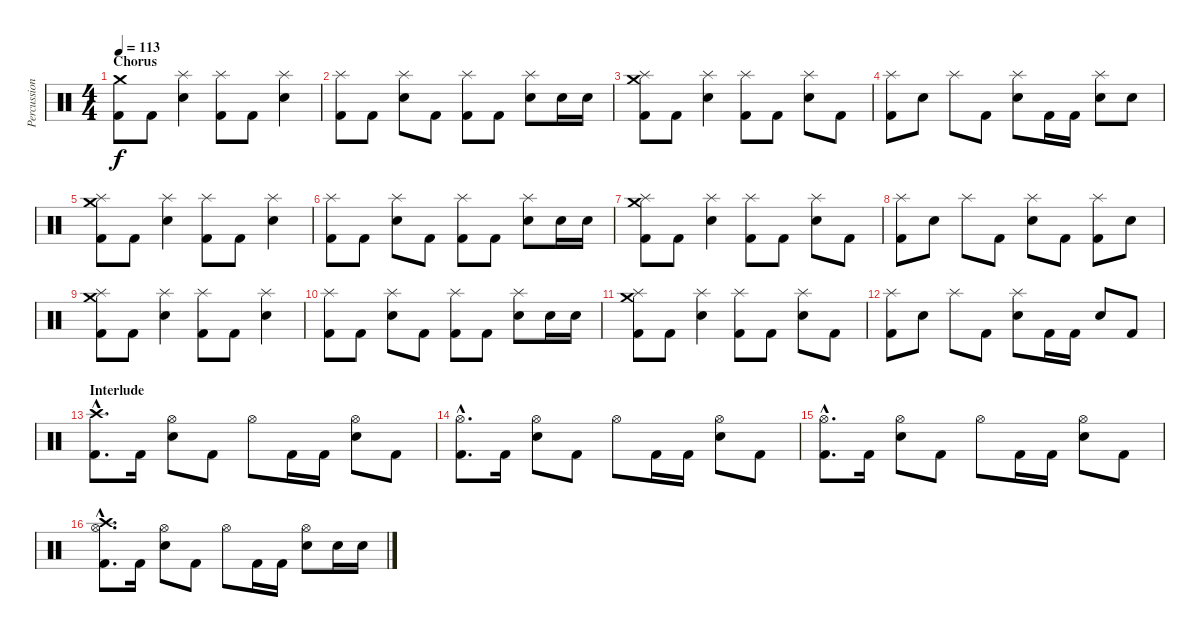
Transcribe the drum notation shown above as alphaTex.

\track ("Percussion" "Percussion") {instrument percussion}
\staff {score}
\articulation defaults
\ts (4 4)
\section ("" "Chorus")
\tempo 113
\clef neutral
\ks c
("Kick (hit) 2" "Crash medium (hit)").8{dy f} "Kick (hit) 2".8 ("Snare (hit) 2" "Splash (hit)").4 ("Kick (hit) 2" "Splash (hit)").8 "Kick (hit) 2".8 ("Snare (hit) 2" "Splash (hit)").4 |
("Kick (hit) 2" "Splash (hit)").8 "Kick (hit) 2".8 ("Snare (hit) 2" "Splash (hit)").8 "Kick (hit) 2".8 ("Kick (hit) 2" "Splash (hit)").8 "Kick (hit) 2".8 ("Snare (hit) 2" "Splash (hit)").8 "Snare (hit) 2".16 "Snare (hit) 2".16 |
("Kick (hit) 2" "Splash (hit)" "Crash medium (hit)").8 "Kick (hit) 2".8 ("Snare (hit) 2" "Splash (hit)").4 ("Kick (hit) 2" "Splash (hit)").8 "Kick (hit) 2".8 ("Snare (hit) 2" "Splash (hit)").8 "Kick (hit) 2".8 |
("Kick (hit) 2" "Splash (hit)").8 "Snare (hit) 2".8 "Splash (hit)".8 "Kick (hit) 2".8 ("Snare (hit) 2" "Splash (hit)").8 "Kick (hit) 2".16 "Kick (hit) 2".16 ("Snare (hit) 2" "Splash (hit)").8 "Snare (hit) 2".8 |
("Kick (hit) 2" "Splash (hit)" "Crash medium (hit)").8 "Kick (hit) 2".8 ("Snare (hit) 2" "Splash (hit)").4 ("Kick (hit) 2" "Splash (hit)").8 "Kick (hit) 2".8 ("Snare (hit) 2" "Splash (hit)").4 |
("Kick (hit) 2" "Splash (hit)").8 "Kick (hit) 2".8 ("Snare (hit) 2" "Splash (hit)").8 "Kick (hit) 2".8 ("Kick (hit) 2" "Splash (hit)").8 "Kick (hit) 2".8 ("Snare (hit) 2" "Splash (hit)").8 "Snare (hit) 2".16 "Snare (hit) 2".16 |
("Kick (hit) 2" "Splash (hit)" "Crash medium (hit)").8 "Kick (hit) 2".8 ("Snare (hit) 2" "Splash (hit)").4 ("Kick (hit) 2" "Splash (hit)").8 "Kick (hit) 2".8 ("Snare (hit) 2" "Splash (hit)").8 "Kick (hit) 2".8 |
("Kick (hit) 2" "Splash (hit)").8 "Snare (hit) 2".8 "Splash (hit)".8 "Kick (hit) 2".8 ("Snare (hit) 2" "Splash (hit)").8 "Kick (hit) 2".8 ("Kick (hit) 2" "Splash (hit)").8 "Snare (hit) 2".8 |
("Kick (hit) 2" "Splash (hit)" "Crash medium (hit)").8 "Kick (hit) 2".8 ("Snare (hit) 2" "Splash (hit)").4 ("Kick (hit) 2" "Splash (hit)").8 "Kick (hit) 2".8 ("Snare (hit) 2" "Splash (hit)").4 |
("Kick (hit) 2" "Splash (hit)").8 "Kick (hit) 2".8 ("Snare (hit) 2" "Splash (hit)").8 "Kick (hit) 2".8 ("Kick (hit) 2" "Splash (hit)").8 "Kick (hit) 2".8 ("Snare (hit) 2" "Splash (hit)").8 "Snare (hit) 2".16 "Snare (hit) 2".16 |
("Kick (hit) 2" "Splash (hit)" "Crash medium (hit)").8 "Kick (hit) 2".8 ("Snare (hit) 2" "Splash (hit)").4 ("Kick (hit) 2" "Splash (hit)").8 "Kick (hit) 2".8 ("Snare (hit) 2" "Splash (hit)").8 "Kick (hit) 2".8 |
("Kick (hit) 2" "Splash (hit)").8 "Electric Snare (hit)".8 "Splash (hit)".8 "Kick (hit) 2".8 ("Electric Snare (hit)" "Splash (hit)").8 "Kick (hit) 2".16 "Kick (hit) 2".16 "Electric Snare (hit)".8 "Kick (hit) 2".8 |
\section ("" "Interlude")
("Kick (hit) 2"{hac} "Crash high (hit)"{hac}).8{d} "Kick (hit) 2".16 ("Electric Snare (hit)" "Hi-Hat (open)").8 "Kick (hit) 2".8 "Hi-Hat (open)".8 "Kick (hit) 2".16 "Kick (hit) 2".16 ("Electric Snare (hit)" "Hi-Hat (open)").8 "Kick (hit) 2".8 |
("Kick (hit) 2"{hac} "Hi-Hat (open)"{hac}).8{d} "Kick (hit) 2".16 ("Electric Snare (hit)" "Hi-Hat (open)").8 "Kick (hit) 2".8 "Hi-Hat (open)".8 "Kick (hit) 2".16 "Kick (hit) 2".16 ("Electric Snare (hit)" "Hi-Hat (open)").8 "Kick (hit) 2".8 |
("Kick (hit) 2"{hac} "Hi-Hat (open)"{hac}).8{d} "Kick (hit) 2".16 ("Electric Snare (hit)" "Hi-Hat (open)").8 "Kick (hit) 2".8 "Hi-Hat (open)".8 "Kick (hit) 2".16 "Kick (hit) 2".16 ("Electric Snare (hit)" "Hi-Hat (open)").8 "Kick (hit) 2".8 |
("Kick (hit) 2"{hac} "Hi-Hat (open)"{hac} "Crash high (hit)"{hac}).8{d} "Kick (hit) 2".16 ("Electric Snare (hit)" "Hi-Hat (open)").8 "Kick (hit) 2".8 "Hi-Hat (open)".8 "Kick (hit) 2".16 "Kick (hit) 2".16 ("Electric Snare (hit)" "Hi-Hat (open)").8 "Electric Snare (hit)".16 "Electric Snare (hit)".16
